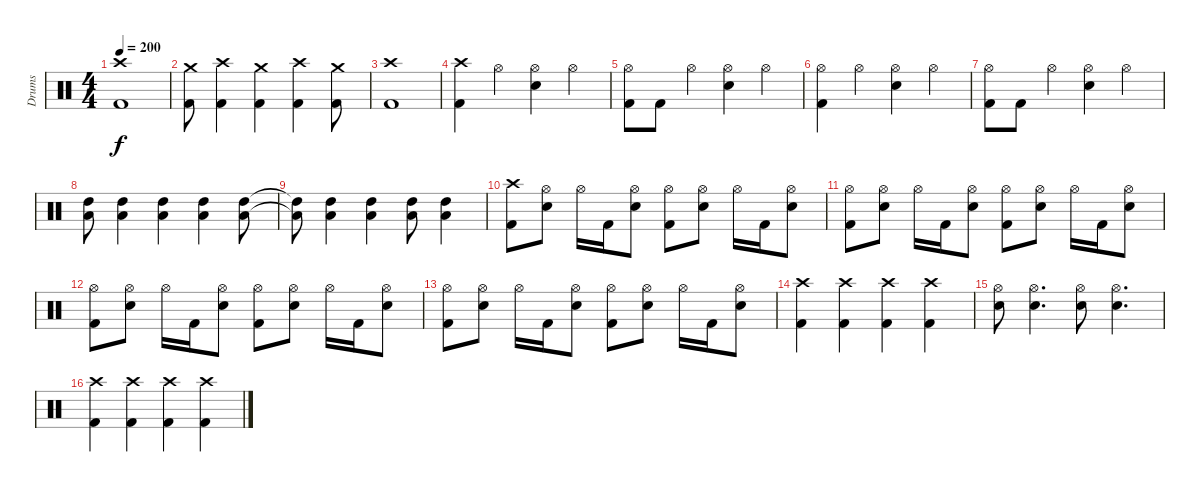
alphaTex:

\track ("Drums" "Drums") {instrument percussion}
\staff {score}
\articulation defaults
\ts (4 4)
\tempo 200
\clef neutral
\ks c
("Crash high (hit)" "Kick (hit) 2").1{dy f} |
("Crash medium (hit)" "Kick (hit) 2").8 ("Crash high (hit)" "Kick (hit) 2").4 ("Crash medium (hit)" "Kick (hit) 2").4 ("Crash high (hit)" "Kick (hit) 2").4 ("Crash medium (hit)" "Kick (hit) 2").8 |
("Crash high (hit)" "Kick (hit) 2").1 |
("Crash high (hit)" "Kick (hit) 2").4 "Hi-Hat (open)".4 ("Hi-Hat (open)" "Snare (hit) 2").4 "Hi-Hat (open)".4 |
("Hi-Hat (open)" "Kick (hit) 2").8 "Kick (hit) 2".8 "Hi-Hat (open)".4 ("Hi-Hat (open)" "Snare (hit) 2").4 "Hi-Hat (open)".4 |
("Hi-Hat (open)" "Kick (hit) 2").4 "Hi-Hat (open)".4 ("Hi-Hat (open)" "Snare (hit) 2").4 "Hi-Hat (open)".4 |
("Hi-Hat (open)" "Kick (hit) 2").8 "Kick (hit) 2".8 "Hi-Hat (open)".4 ("Hi-Hat (open)" "Snare (hit) 2").4 "Hi-Hat (open)".4 |
("High Tom (hit)" "Low Tom (hit)").8 ("High Tom (hit)" "Low Tom (hit)").4 ("High Tom (hit)" "Low Tom (hit)").4 ("High Tom (hit)" "Low Tom (hit)").4 ("High Tom (hit)" "Low Tom (hit)").8 |
("High Tom (hit)"{t} "Low Tom (hit)"{t}).8 ("High Tom (hit)" "Low Tom (hit)").4 ("High Tom (hit)" "Low Tom (hit)").4 ("High Tom (hit)" "Low Tom (hit)").8 ("High Tom (hit)" "Low Tom (hit)").4 |
("Crash high (hit)" "Kick (hit) 2").8 ("Hi-Hat (open)" "Snare (hit) 2").8 "Hi-Hat (open)".16 "Kick (hit) 2".16 ("Hi-Hat (open)" "Snare (hit) 2").8 ("Hi-Hat (open)" "Kick (hit) 2").8 ("Hi-Hat (open)" "Snare (hit) 2").8 "Hi-Hat (open)".16 "Kick (hit) 2".16 ("Hi-Hat (open)" "Snare (hit) 2").8 |
("Hi-Hat (open)" "Kick (hit) 2").8 ("Hi-Hat (open)" "Snare (hit) 2").8 "Hi-Hat (open)".16 "Kick (hit) 2".16 ("Hi-Hat (open)" "Snare (hit) 2").8 ("Hi-Hat (open)" "Kick (hit) 2").8 ("Hi-Hat (open)" "Snare (hit) 2").8 "Hi-Hat (open)".16 "Kick (hit) 2".16 ("Hi-Hat (open)" "Snare (hit) 2").8 |
("Hi-Hat (open)" "Kick (hit) 2").8 ("Hi-Hat (open)" "Snare (hit) 2").8 "Hi-Hat (open)".16 "Kick (hit) 2".16 ("Hi-Hat (open)" "Snare (hit) 2").8 ("Hi-Hat (open)" "Kick (hit) 2").8 ("Hi-Hat (open)" "Snare (hit) 2").8 "Hi-Hat (open)".16 "Kick (hit) 2".16 ("Hi-Hat (open)" "Snare (hit) 2").8 |
("Hi-Hat (open)" "Kick (hit) 2").8 ("Hi-Hat (open)" "Snare (hit) 2").8 "Hi-Hat (open)".16 "Kick (hit) 2".16 ("Hi-Hat (open)" "Snare (hit) 2").8 ("Hi-Hat (open)" "Kick (hit) 2").8 ("Hi-Hat (open)" "Snare (hit) 2").8 "Hi-Hat (open)".16 "Kick (hit) 2".16 ("Hi-Hat (open)" "Snare (hit) 2").8 |
("Crash high (hit)" "Kick (hit) 2").4 ("Crash high (hit)" "Kick (hit) 2").4 ("Crash high (hit)" "Kick (hit) 2").4 ("Crash high (hit)" "Kick (hit) 2").4 |
("Hi-Hat (open)" "Snare (hit) 2").8 ("Hi-Hat (open)" "Snare (hit) 2").4{d} ("Hi-Hat (open)" "Snare (hit) 2").8 ("Hi-Hat (open)" "Snare (hit) 2").4{d} |
("Crash high (hit)" "Kick (hit) 2").4 ("Crash high (hit)" "Kick (hit) 2").4 ("Crash high (hit)" "Kick (hit) 2").4 ("Crash high (hit)" "Kick (hit) 2").4
